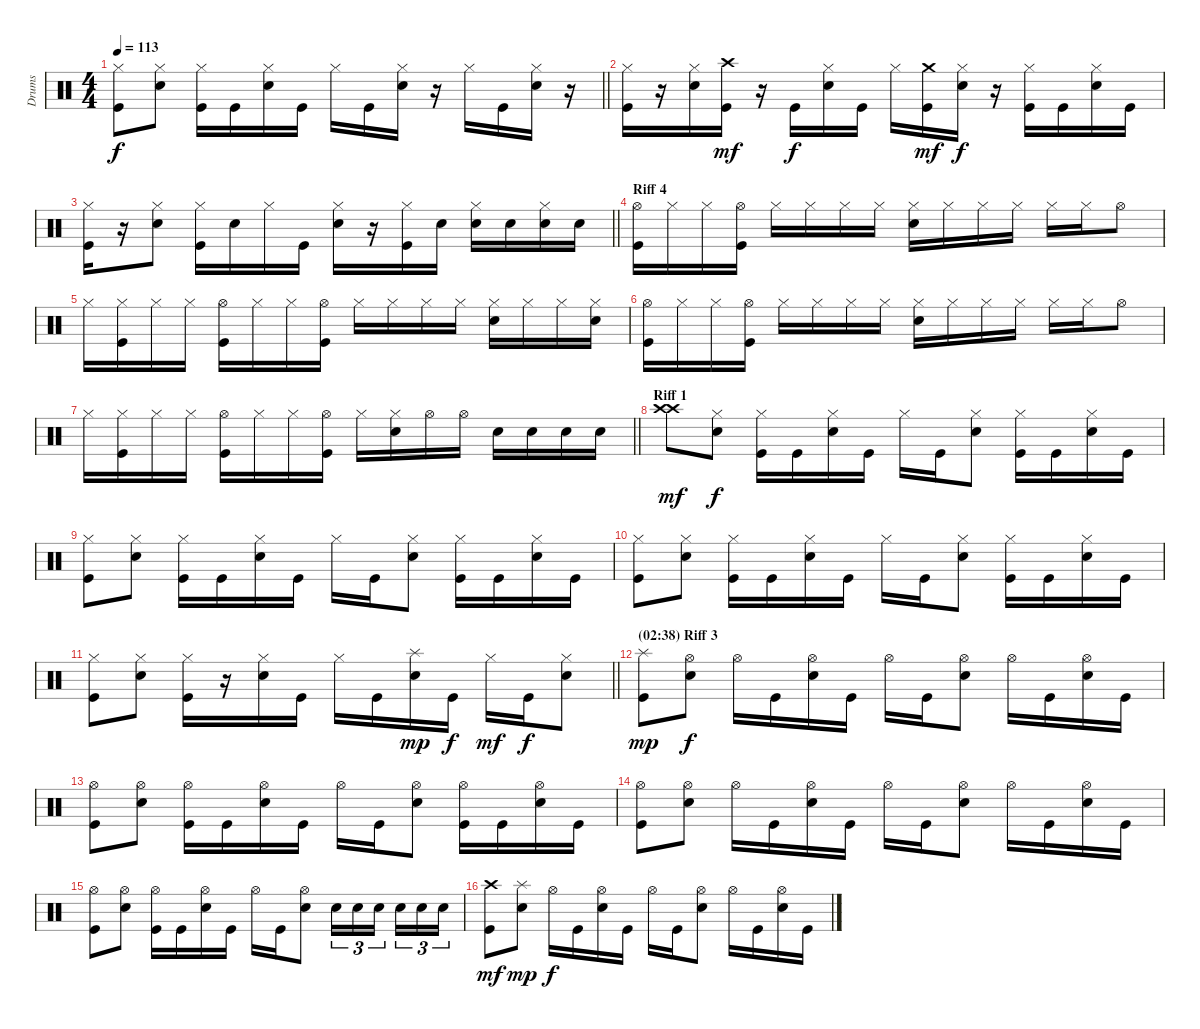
\track ("Drums" "Drums") {instrument percussion}
\staff {score}
\articulation defaults
\ts (4 4)
\tempo 113
\clef neutral
\barLineRight lightlight
\ks c
("Hi-Hat (closed)" "Kick (hit)").8{dy f} ("Hi-Hat (closed)" "Snare (hit) 2").8 ("Hi-Hat (closed)" "Kick (hit)").16 "Kick (hit)".16 ("Hi-Hat (closed)" "Snare (hit) 2").16 "Kick (hit)".16 "Hi-Hat (closed)".16 "Kick (hit)".16 ("Hi-Hat (closed)" "Snare (hit) 2").16 r.16 "Hi-Hat (closed)".16 "Kick (hit)".16 ("Hi-Hat (closed)" "Snare (hit) 2").16 r.16 |
("Hi-Hat (closed)" "Kick (hit)").16 r.16 ("Hi-Hat (closed)" "Snare (hit) 2").16 ("Crash high (hit)" "Kick (hit)").16{dy mf} r.16 "Kick (hit)".16{dy f} ("Hi-Hat (closed)" "Snare (hit) 2").16 "Kick (hit)".16 "Hi-Hat (closed)".16 ("Crash medium (hit)" "Kick (hit)").16{dy mf} ("Hi-Hat (closed)" "Snare (hit) 2").16{dy f} r.16 ("Hi-Hat (closed)" "Kick (hit)").16 "Kick (hit)".16 ("Hi-Hat (closed)" "Snare (hit) 2").16 "Kick (hit)".16 |
\barLineRight lightlight
("Hi-Hat (closed)" "Kick (hit)").16 r.16 ("Hi-Hat (closed)" "Snare (hit) 2").8 ("Hi-Hat (closed)" "Kick (hit)").16 "Snare (hit) 2".16 "Hi-Hat (closed)".16 "Kick (hit)".16 ("Hi-Hat (closed)" "Snare (hit) 2").16 r.16 ("Hi-Hat (closed)" "Kick (hit)").16 "Snare (hit) 2".16 ("Hi-Hat (closed)" "Snare (hit) 2").16 "Snare (hit) 2".16 ("Hi-Hat (closed)" "Snare (hit) 2").16 "Snare (hit) 2".16 |
\section ("" "Riff 4")
("Hi-Hat (open)" "Kick (hit)").16 "Hi-Hat (closed)".16 "Hi-Hat (closed)".16 ("Hi-Hat (open)" "Kick (hit)").16 "Hi-Hat (closed)".16 "Hi-Hat (closed)".16 "Hi-Hat (closed)".16 "Hi-Hat (closed)".16 ("Hi-Hat (closed)" "Snare (hit) 2").16 "Hi-Hat (closed)".16 "Hi-Hat (closed)".16 "Hi-Hat (closed)".16 "Hi-Hat (closed)".16 "Hi-Hat (closed)".16 "Hi-Hat (open)".8 |
"Hi-Hat (closed)".16 ("Hi-Hat (closed)" "Kick (hit)").16 "Hi-Hat (closed)".16 "Hi-Hat (closed)".16 ("Hi-Hat (open)" "Kick (hit)").16 "Hi-Hat (closed)".16 "Hi-Hat (closed)".16 ("Hi-Hat (open)" "Kick (hit)").16 "Hi-Hat (closed)".16 "Hi-Hat (closed)".16 "Hi-Hat (closed)".16 "Hi-Hat (closed)".16 ("Hi-Hat (closed)" "Snare (hit) 2").16 "Hi-Hat (closed)".16 "Hi-Hat (closed)".16 ("Hi-Hat (closed)" "Snare (hit) 2").16 |
("Hi-Hat (open)" "Kick (hit)").16 "Hi-Hat (closed)".16 "Hi-Hat (closed)".16 ("Hi-Hat (open)" "Kick (hit)").16 "Hi-Hat (closed)".16 "Hi-Hat (closed)".16 "Hi-Hat (closed)".16 "Hi-Hat (closed)".16 ("Hi-Hat (closed)" "Snare (hit) 2").16 "Hi-Hat (closed)".16 "Hi-Hat (closed)".16 "Hi-Hat (closed)".16 "Hi-Hat (closed)".16 "Hi-Hat (closed)".16 "Hi-Hat (open)".8 |
\barLineRight lightlight "Hi-Hat (closed)".16
("Hi-Hat (closed)" "Kick (hit)").16 "Hi-Hat (closed)".16 "Hi-Hat (closed)".16 ("Hi-Hat (open)" "Kick (hit)").16 "Hi-Hat (closed)".16 "Hi-Hat (closed)".16 ("Hi-Hat (open)" "Kick (hit)").16 "Hi-Hat (closed)".16 ("Hi-Hat (closed)" "Snare (hit) 2").16 "Hi-Hat (open)".16 "Hi-Hat (open)".16 "Snare (hit) 2".16 "Snare (hit) 2".16 "Snare (hit) 2".16 "Snare (hit) 2".16 |
\section ("" "Riff 1")
("Crash high (hit)" "Crash high (hit)").8{dy mf} ("Hi-Hat (closed)" "Snare (hit) 2").8{dy f} ("Hi-Hat (closed)" "Kick (hit)").16 "Kick (hit)".16 ("Hi-Hat (closed)" "Snare (hit) 2").16 "Kick (hit)".16 "Hi-Hat (closed)".16 "Kick (hit)".16 ("Hi-Hat (closed)" "Snare (hit) 2").8 ("Hi-Hat (closed)" "Kick (hit)").16 "Kick (hit)".16 ("Hi-Hat (closed)" "Snare (hit) 2").16 "Kick (hit)".16 |
("Hi-Hat (closed)" "Kick (hit)").8 ("Hi-Hat (closed)" "Snare (hit) 2").8 ("Hi-Hat (closed)" "Kick (hit)").16 "Kick (hit)".16 ("Hi-Hat (closed)" "Snare (hit) 2").16 "Kick (hit)".16 "Hi-Hat (closed)".16 "Kick (hit)".16 ("Hi-Hat (closed)" "Snare (hit) 2").8 ("Hi-Hat (closed)" "Kick (hit)").16 "Kick (hit)".16 ("Hi-Hat (closed)" "Snare (hit) 2").16 "Kick (hit)".16 |
("Hi-Hat (closed)" "Kick (hit)").8 ("Hi-Hat (closed)" "Snare (hit) 2").8 ("Hi-Hat (closed)" "Kick (hit)").16 "Kick (hit)".16 ("Hi-Hat (closed)" "Snare (hit) 2").16 "Kick (hit)".16 "Hi-Hat (closed)".16 "Kick (hit)".16 ("Hi-Hat (closed)" "Snare (hit) 2").8 ("Hi-Hat (closed)" "Kick (hit)").16 "Kick (hit)".16 ("Hi-Hat (closed)" "Snare (hit) 2").16 "Kick (hit)".16 |
\barLineRight lightlight
("Hi-Hat (closed)" "Kick (hit)").8 ("Hi-Hat (closed)" "Snare (hit) 2").8 ("Hi-Hat (closed)" "Kick (hit)").16 r.16 ("Hi-Hat (closed)" "Snare (hit) 2").16 "Kick (hit)".16 "Hi-Hat (closed)".16 "Kick (hit)".16 ("Splash (hit)" "Snare (hit) 2").16{dy mp} "Kick (hit)".16{dy f} "Hi-Hat (closed)".16{dy mf} "Kick (hit)".16{dy f} ("Hi-Hat (closed)" "Snare (hit) 2").8 |
\section ("" "(02:38) Riff 3")
("Splash (hit)" "Kick (hit)").8{dy mp} ("Hi-Hat (open)" "Snare (hit) 2").8{dy f} "Hi-Hat (open)".16 "Kick (hit)".16 ("Hi-Hat (open)" "Snare (hit) 2").16 "Kick (hit)".16 "Hi-Hat (open)".16 "Kick (hit)".16 ("Hi-Hat (open)" "Snare (hit) 2").8 "Hi-Hat (open)".16 "Kick (hit)".16 ("Hi-Hat (open)" "Snare (hit) 2").16 "Kick (hit)".16 |
("Hi-Hat (open)" "Kick (hit)").8 ("Hi-Hat (open)" "Snare (hit) 2").8 ("Hi-Hat (open)" "Kick (hit)").16 "Kick (hit)".16 ("Hi-Hat (open)" "Snare (hit) 2").16 "Kick (hit)".16 "Hi-Hat (open)".16 "Kick (hit)".16 ("Hi-Hat (open)" "Snare (hit) 2").8 ("Hi-Hat (open)" "Kick (hit)").16 "Kick (hit)".16 ("Hi-Hat (open)" "Snare (hit) 2").16 "Kick (hit)".16 |
("Hi-Hat (open)" "Kick (hit)").8 ("Hi-Hat (open)" "Snare (hit) 2").8 "Hi-Hat (open)".16 "Kick (hit)".16 ("Hi-Hat (open)" "Snare (hit) 2").16 "Kick (hit)".16 "Hi-Hat (open)".16 "Kick (hit)".16 ("Hi-Hat (open)" "Snare (hit) 2").8 "Hi-Hat (open)".16 "Kick (hit)".16 ("Hi-Hat (open)" "Snare (hit) 2").16 "Kick (hit)".16 |
("Hi-Hat (open)" "Kick (hit)").8 ("Hi-Hat (open)" "Snare (hit) 2").8 ("Hi-Hat (open)" "Kick (hit)").16 "Kick (hit)".16 ("Hi-Hat (open)" "Snare (hit) 2").16 "Kick (hit)".16 "Hi-Hat (open)".16 "Kick (hit)".16 ("Hi-Hat (open)" "Snare (hit) 2").8 "Snare (hit) 2".16{tu (3 2)} "Snare (hit) 2".16{tu (3 2)} "Snare (hit) 2".16{tu (3 2) beam splitsecondary} "Snare (hit) 2".16{tu (3 2)} "Snare (hit) 2".16{tu (3 2)} "Snare (hit) 2".16{tu (3 2)} |
("Crash high (hit)" "Kick (hit)").8{dy mf} ("Splash (hit)" "Snare (hit) 2").8{dy mp} "Hi-Hat (open)".16{dy f} "Kick (hit)".16 ("Hi-Hat (open)" "Snare (hit) 2").16 "Kick (hit)".16 "Hi-Hat (open)".16 "Kick (hit)".16 ("Hi-Hat (open)" "Snare (hit) 2").8 "Hi-Hat (open)".16 "Kick (hit)".16 ("Hi-Hat (open)" "Snare (hit) 2").16 "Kick (hit)".16
